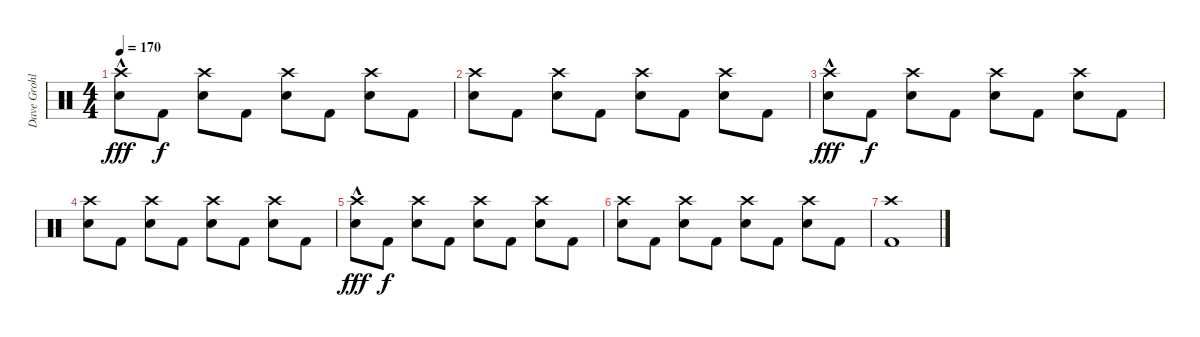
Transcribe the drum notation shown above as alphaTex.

\track ("Dave Grohl" "Dave Grohl") {instrument percussion}
\staff {score}
\articulation defaults
\ts (4 4)
\tempo 170
\clef neutral
\ks c
("Crash high (hit)"{hac} "Snare (hit) 2").8{dy fff} "Kick (hit) 2".8{dy f} ("Crash high (hit)" "Snare (hit) 2").8 "Kick (hit) 2".8 ("Crash high (hit)" "Snare (hit) 2").8 "Kick (hit) 2".8 ("Crash high (hit)" "Snare (hit) 2").8 "Kick (hit) 2".8 |
("Crash high (hit)" "Snare (hit) 2").8 "Kick (hit) 2".8 ("Crash high (hit)" "Snare (hit) 2").8 "Kick (hit) 2".8 ("Crash high (hit)" "Snare (hit) 2").8 "Kick (hit) 2".8 ("Crash high (hit)" "Snare (hit) 2").8 "Kick (hit) 2".8 |
("Crash high (hit)"{hac} "Snare (hit) 2").8{dy fff} "Kick (hit) 2".8{dy f} ("Crash high (hit)" "Snare (hit) 2").8 "Kick (hit) 2".8 ("Crash high (hit)" "Snare (hit) 2").8 "Kick (hit) 2".8 ("Crash high (hit)" "Snare (hit) 2").8 "Kick (hit) 2".8 |
("Crash high (hit)" "Snare (hit) 2").8 "Kick (hit) 2".8 ("Crash high (hit)" "Snare (hit) 2").8 "Kick (hit) 2".8 ("Crash high (hit)" "Snare (hit) 2").8 "Kick (hit) 2".8 ("Crash high (hit)" "Snare (hit) 2").8 "Kick (hit) 2".8 |
("Crash high (hit)"{hac} "Snare (hit) 2").8{dy fff} "Kick (hit) 2".8{dy f} ("Crash high (hit)" "Snare (hit) 2").8 "Kick (hit) 2".8 ("Crash high (hit)" "Snare (hit) 2").8 "Kick (hit) 2".8 ("Crash high (hit)" "Snare (hit) 2").8 "Kick (hit) 2".8 |
("Crash high (hit)" "Snare (hit) 2").8 "Kick (hit) 2".8 ("Crash high (hit)" "Snare (hit) 2").8 "Kick (hit) 2".8 ("Crash high (hit)" "Snare (hit) 2").8 "Kick (hit) 2".8 ("Crash high (hit)" "Snare (hit) 2").8 "Kick (hit) 2".8 |
("Crash high (hit)" "Kick (hit) 2").1
